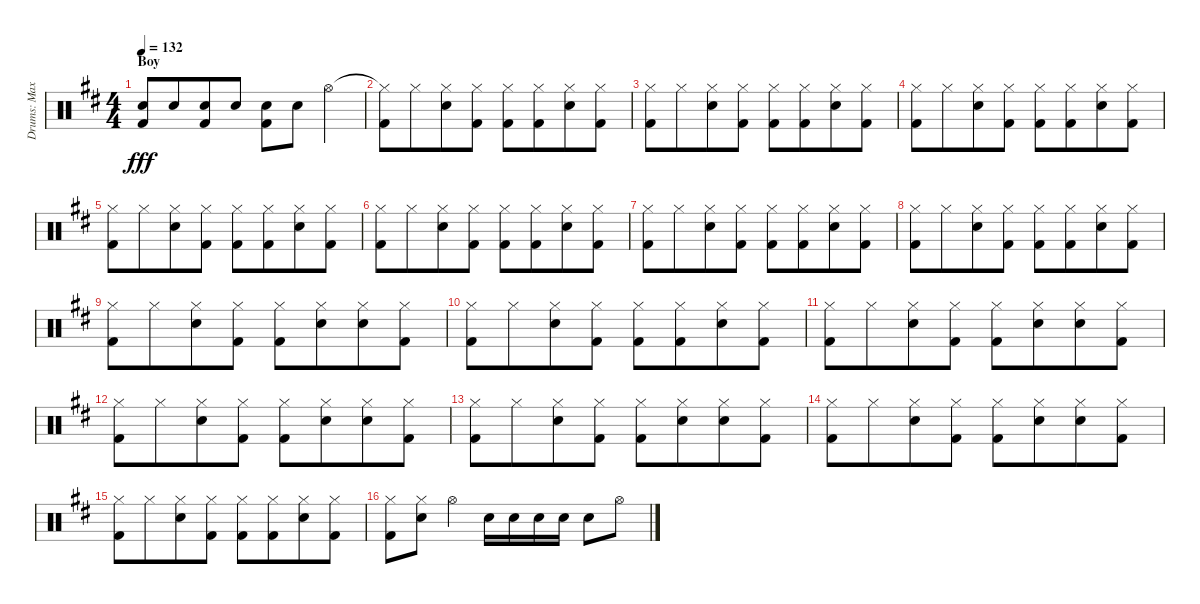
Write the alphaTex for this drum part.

\track ("Drums: Max" "Drums: Max") {instrument percussion}
\staff {score}
\articulation defaults
\ts (4 4)
\section ("" "Boy")
\tempo 132
\clef neutral
\ks d
("Electric Snare (hit)" "Kick (hit) 2").8{dy fff} "Electric Snare (hit)".8{beam merge} ("Electric Snare (hit)" "Kick (hit) 2").8 "Electric Snare (hit)".8 ("Electric Snare (hit)" "Kick (hit) 2").8 "Electric Snare (hit)".8{beam merge} "Hi-Hat (open)".4 |
("Hi-Hat (closed)"{t} "Kick (hit) 2").8 "Hi-Hat (closed)".8{beam merge} ("Hi-Hat (closed)" "Electric Snare (hit)").8 ("Hi-Hat (closed)" "Kick (hit) 2").8 ("Hi-Hat (closed)" "Kick (hit) 2").8 ("Hi-Hat (closed)" "Kick (hit) 2").8{beam merge} ("Hi-Hat (closed)" "Electric Snare (hit)").8 ("Hi-Hat (closed)" "Kick (hit) 2").8 |
("Hi-Hat (closed)" "Kick (hit) 2").8 "Hi-Hat (closed)".8{beam merge} ("Hi-Hat (closed)" "Electric Snare (hit)").8 ("Hi-Hat (closed)" "Kick (hit) 2").8 ("Hi-Hat (closed)" "Kick (hit) 2").8 ("Hi-Hat (closed)" "Kick (hit) 2").8{beam merge} ("Hi-Hat (closed)" "Electric Snare (hit)").8 ("Hi-Hat (closed)" "Kick (hit) 2").8 |
("Hi-Hat (closed)" "Kick (hit) 2").8 "Hi-Hat (closed)".8{beam merge} ("Hi-Hat (closed)" "Electric Snare (hit)").8 ("Hi-Hat (closed)" "Kick (hit) 2").8 ("Hi-Hat (closed)" "Kick (hit) 2").8 ("Hi-Hat (closed)" "Kick (hit) 2").8{beam merge} ("Hi-Hat (closed)" "Electric Snare (hit)").8 ("Hi-Hat (closed)" "Kick (hit) 2").8 |
("Hi-Hat (closed)" "Kick (hit) 2").8 "Hi-Hat (closed)".8{beam merge} ("Hi-Hat (closed)" "Electric Snare (hit)").8 ("Hi-Hat (closed)" "Kick (hit) 2").8 ("Hi-Hat (closed)" "Kick (hit) 2").8 ("Hi-Hat (closed)" "Kick (hit) 2").8{beam merge} ("Hi-Hat (closed)" "Electric Snare (hit)").8 ("Hi-Hat (closed)" "Kick (hit) 2").8 |
("Hi-Hat (closed)" "Kick (hit) 2").8 "Hi-Hat (closed)".8{beam merge} ("Hi-Hat (closed)" "Electric Snare (hit)").8 ("Hi-Hat (closed)" "Kick (hit) 2").8 ("Hi-Hat (closed)" "Kick (hit) 2").8 ("Hi-Hat (closed)" "Kick (hit) 2").8{beam merge} ("Hi-Hat (closed)" "Electric Snare (hit)").8 ("Hi-Hat (closed)" "Kick (hit) 2").8 |
("Hi-Hat (closed)" "Kick (hit) 2").8 "Hi-Hat (closed)".8{beam merge} ("Hi-Hat (closed)" "Electric Snare (hit)").8 ("Hi-Hat (closed)" "Kick (hit) 2").8 ("Hi-Hat (closed)" "Kick (hit) 2").8 ("Hi-Hat (closed)" "Kick (hit) 2").8{beam merge} ("Hi-Hat (closed)" "Electric Snare (hit)").8 ("Hi-Hat (closed)" "Kick (hit) 2").8 |
("Hi-Hat (closed)" "Kick (hit) 2").8 "Hi-Hat (closed)".8{beam merge} ("Hi-Hat (closed)" "Electric Snare (hit)").8 ("Hi-Hat (closed)" "Kick (hit) 2").8 ("Hi-Hat (closed)" "Kick (hit) 2").8 ("Hi-Hat (closed)" "Kick (hit) 2").8{beam merge} ("Hi-Hat (closed)" "Electric Snare (hit)").8 ("Hi-Hat (closed)" "Kick (hit) 2").8 |
("Hi-Hat (closed)" "Kick (hit) 2").8 "Hi-Hat (closed)".8{beam merge} ("Hi-Hat (closed)" "Electric Snare (hit)").8 ("Hi-Hat (closed)" "Kick (hit) 2").8 ("Hi-Hat (closed)" "Kick (hit) 2").8 ("Hi-Hat (closed)" "Electric Snare (hit)").8{beam merge} ("Hi-Hat (closed)" "Electric Snare (hit)").8 ("Hi-Hat (closed)" "Kick (hit) 2").8 |
("Hi-Hat (closed)" "Kick (hit) 2").8 "Hi-Hat (closed)".8{beam merge} ("Hi-Hat (closed)" "Electric Snare (hit)").8 ("Hi-Hat (closed)" "Kick (hit) 2").8 ("Hi-Hat (closed)" "Kick (hit) 2").8 ("Hi-Hat (closed)" "Kick (hit) 2").8{beam merge} ("Hi-Hat (closed)" "Electric Snare (hit)").8 ("Hi-Hat (closed)" "Kick (hit) 2").8 |
("Hi-Hat (closed)" "Kick (hit) 2").8 "Hi-Hat (closed)".8{beam merge} ("Hi-Hat (closed)" "Electric Snare (hit)").8 ("Hi-Hat (closed)" "Kick (hit) 2").8 ("Hi-Hat (closed)" "Kick (hit) 2").8 ("Hi-Hat (closed)" "Electric Snare (hit)").8{beam merge} ("Hi-Hat (closed)" "Electric Snare (hit)").8 ("Hi-Hat (closed)" "Kick (hit) 2").8 |
("Hi-Hat (closed)" "Kick (hit) 2").8 "Hi-Hat (closed)".8{beam merge} ("Hi-Hat (closed)" "Electric Snare (hit)").8 ("Hi-Hat (closed)" "Kick (hit) 2").8 ("Hi-Hat (closed)" "Kick (hit) 2").8 ("Hi-Hat (closed)" "Electric Snare (hit)").8{beam merge} ("Hi-Hat (closed)" "Electric Snare (hit)").8 ("Hi-Hat (closed)" "Kick (hit) 2").8 |
("Hi-Hat (closed)" "Kick (hit) 2").8 "Hi-Hat (closed)".8{beam merge} ("Hi-Hat (closed)" "Electric Snare (hit)").8 ("Hi-Hat (closed)" "Kick (hit) 2").8 ("Hi-Hat (closed)" "Kick (hit) 2").8 ("Hi-Hat (closed)" "Electric Snare (hit)").8{beam merge} ("Hi-Hat (closed)" "Electric Snare (hit)").8 ("Hi-Hat (closed)" "Kick (hit) 2").8 |
("Hi-Hat (closed)" "Kick (hit) 2").8 "Hi-Hat (closed)".8{beam merge} ("Hi-Hat (closed)" "Electric Snare (hit)").8 ("Hi-Hat (closed)" "Kick (hit) 2").8 ("Hi-Hat (closed)" "Kick (hit) 2").8 ("Hi-Hat (closed)" "Electric Snare (hit)").8{beam merge} ("Hi-Hat (closed)" "Electric Snare (hit)").8 ("Hi-Hat (closed)" "Kick (hit) 2").8 |
("Hi-Hat (closed)" "Kick (hit) 2").8 "Hi-Hat (closed)".8{beam merge} ("Hi-Hat (closed)" "Electric Snare (hit)").8 ("Hi-Hat (closed)" "Kick (hit) 2").8 ("Hi-Hat (closed)" "Kick (hit) 2").8 ("Hi-Hat (closed)" "Kick (hit) 2").8{beam merge} ("Hi-Hat (closed)" "Electric Snare (hit)").8 ("Hi-Hat (closed)" "Kick (hit) 2").8 |
("Hi-Hat (closed)" "Kick (hit) 2").8{beam merge} ("Hi-Hat (closed)" "Electric Snare (hit)").8 "Hi-Hat (open)".4 "Electric Snare (hit)".16{beam merge} "Electric Snare (hit)".16 "Electric Snare (hit)".16{beam merge} "Electric Snare (hit)".16 "Electric Snare (hit)".8{beam merge} "Hi-Hat (open)".8
